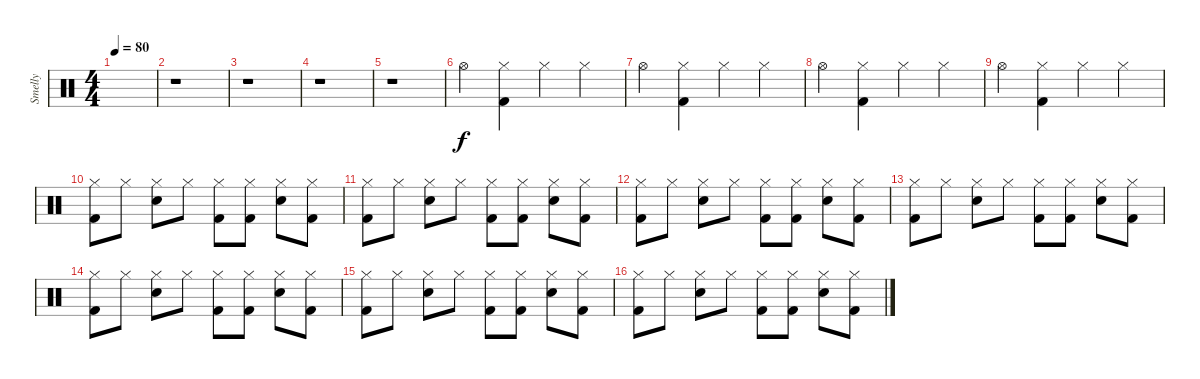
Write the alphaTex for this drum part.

\track ("Smelly" "Smelly") {instrument percussion}
\staff {score}
\articulation defaults
\ts (4 4)
\tempo 80
\clef neutral
\ks c
|
r.1 |
r.1 |
r.1 |
r.1 |
"Hi-Hat (open)".4 ("Hi-Hat (closed)" "Kick (hit) 2").4 "Hi-Hat (closed)".4 "Hi-Hat (closed)".4 |
"Hi-Hat (open)".4 ("Hi-Hat (closed)" "Kick (hit) 2").4 "Hi-Hat (closed)".4 "Hi-Hat (closed)".4 |
"Hi-Hat (open)".4 ("Hi-Hat (closed)" "Kick (hit) 2").4 "Hi-Hat (closed)".4 "Hi-Hat (closed)".4 |
"Hi-Hat (open)".4 ("Hi-Hat (closed)" "Kick (hit) 2").4 "Hi-Hat (closed)".4 "Hi-Hat (closed)".4 |
("Hi-Hat (closed)" "Kick (hit) 2").8 "Hi-Hat (closed)".8 ("Hi-Hat (closed)" "Electric Snare (hit)").8 "Hi-Hat (closed)".8 ("Hi-Hat (closed)" "Kick (hit) 2").8 ("Hi-Hat (closed)" "Kick (hit) 2").8 ("Hi-Hat (closed)" "Electric Snare (hit)").8 ("Hi-Hat (closed)" "Kick (hit) 2").8 |
("Hi-Hat (closed)" "Kick (hit) 2").8 "Hi-Hat (closed)".8 ("Hi-Hat (closed)" "Electric Snare (hit)").8 "Hi-Hat (closed)".8 ("Hi-Hat (closed)" "Kick (hit) 2").8 ("Hi-Hat (closed)" "Kick (hit) 2").8 ("Hi-Hat (closed)" "Electric Snare (hit)").8 ("Hi-Hat (closed)" "Kick (hit) 2").8 |
("Hi-Hat (closed)" "Kick (hit) 2").8 "Hi-Hat (closed)".8 ("Hi-Hat (closed)" "Electric Snare (hit)").8 "Hi-Hat (closed)".8 ("Hi-Hat (closed)" "Kick (hit) 2").8 ("Hi-Hat (closed)" "Kick (hit) 2").8 ("Hi-Hat (closed)" "Electric Snare (hit)").8 ("Hi-Hat (closed)" "Kick (hit) 2").8 |
("Hi-Hat (closed)" "Kick (hit) 2").8 "Hi-Hat (closed)".8 ("Hi-Hat (closed)" "Electric Snare (hit)").8 "Hi-Hat (closed)".8 ("Hi-Hat (closed)" "Kick (hit) 2").8 ("Hi-Hat (closed)" "Kick (hit) 2").8 ("Hi-Hat (closed)" "Electric Snare (hit)").8 ("Hi-Hat (closed)" "Kick (hit) 2").8 |
("Hi-Hat (closed)" "Kick (hit) 2").8 "Hi-Hat (closed)".8 ("Hi-Hat (closed)" "Electric Snare (hit)").8 "Hi-Hat (closed)".8 ("Hi-Hat (closed)" "Kick (hit) 2").8 ("Hi-Hat (closed)" "Kick (hit) 2").8 ("Hi-Hat (closed)" "Electric Snare (hit)").8 ("Hi-Hat (closed)" "Kick (hit) 2").8 |
("Hi-Hat (closed)" "Kick (hit) 2").8 "Hi-Hat (closed)".8 ("Hi-Hat (closed)" "Electric Snare (hit)").8 "Hi-Hat (closed)".8 ("Hi-Hat (closed)" "Kick (hit) 2").8 ("Hi-Hat (closed)" "Kick (hit) 2").8 ("Hi-Hat (closed)" "Electric Snare (hit)").8 ("Hi-Hat (closed)" "Kick (hit) 2").8 |
("Hi-Hat (closed)" "Kick (hit) 2").8 "Hi-Hat (closed)".8 ("Hi-Hat (closed)" "Electric Snare (hit)").8 "Hi-Hat (closed)".8 ("Hi-Hat (closed)" "Kick (hit) 2").8 ("Hi-Hat (closed)" "Kick (hit) 2").8 ("Hi-Hat (closed)" "Electric Snare (hit)").8 ("Hi-Hat (closed)" "Kick (hit) 2").8
